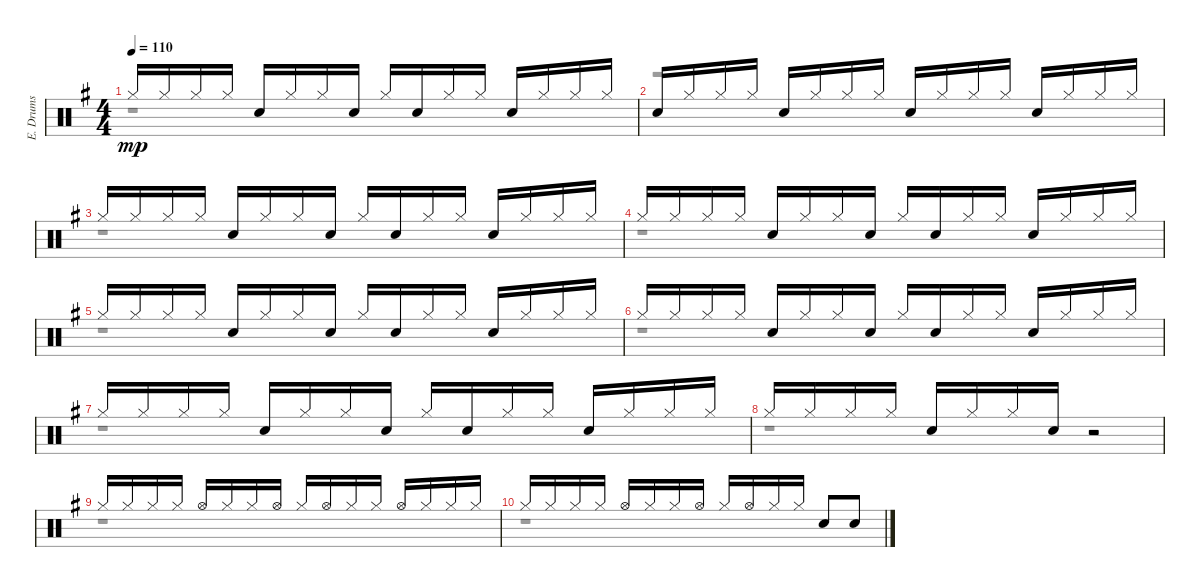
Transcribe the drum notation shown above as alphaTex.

\track ("E. Drums" "E. Drums") {instrument percussion}
\staff {score}
\articulation defaults
\voice
\ts (4 4)
\tempo 110
\clef neutral
\ks g "Hi-Hat (closed)".16{dy mp} "Hi-Hat (closed)".16 "Hi-Hat (closed)".16 "Hi-Hat (closed)".16 "Electric Snare (hit)".16 "Hi-Hat (closed)".16 "Hi-Hat (closed)".16 "Electric Snare (hit)".16 "Hi-Hat (closed)".16 "Electric Snare (hit)".16 "Hi-Hat (closed)".16 "Hi-Hat (closed)".16 "Electric Snare (hit)".16 "Hi-Hat (closed)".16 "Hi-Hat (closed)".16 "Hi-Hat (closed)".16
|
"Electric Snare (hit)".16 "Hi-Hat (closed)".16 "Hi-Hat (closed)".16 "Hi-Hat (closed)".16 "Electric Snare (hit)".16 "Hi-Hat (closed)".16 "Hi-Hat (closed)".16 "Hi-Hat (closed)".16 "Electric Snare (hit)".16 "Hi-Hat (closed)".16 "Hi-Hat (closed)".16 "Hi-Hat (closed)".16 "Electric Snare (hit)".16 "Hi-Hat (closed)".16 "Hi-Hat (closed)".16 "Hi-Hat (closed)".16 |
"Hi-Hat (closed)".16 "Hi-Hat (closed)".16 "Hi-Hat (closed)".16 "Hi-Hat (closed)".16 "Electric Snare (hit)".16 "Hi-Hat (closed)".16 "Hi-Hat (closed)".16 "Electric Snare (hit)".16 "Hi-Hat (closed)".16 "Electric Snare (hit)".16 "Hi-Hat (closed)".16 "Hi-Hat (closed)".16 "Electric Snare (hit)".16 "Hi-Hat (closed)".16 "Hi-Hat (closed)".16 "Hi-Hat (closed)".16 |
"Hi-Hat (closed)".16 "Hi-Hat (closed)".16 "Hi-Hat (closed)".16 "Hi-Hat (closed)".16 "Electric Snare (hit)".16 "Hi-Hat (closed)".16 "Hi-Hat (closed)".16 "Electric Snare (hit)".16 "Hi-Hat (closed)".16 "Electric Snare (hit)".16 "Hi-Hat (closed)".16 "Hi-Hat (closed)".16 "Electric Snare (hit)".16 "Hi-Hat (closed)".16 "Hi-Hat (closed)".16 "Hi-Hat (closed)".16 |
"Hi-Hat (closed)".16 "Hi-Hat (closed)".16 "Hi-Hat (closed)".16 "Hi-Hat (closed)".16 "Electric Snare (hit)".16 "Hi-Hat (closed)".16 "Hi-Hat (closed)".16 "Electric Snare (hit)".16 "Hi-Hat (closed)".16 "Electric Snare (hit)".16 "Hi-Hat (closed)".16 "Hi-Hat (closed)".16 "Electric Snare (hit)".16 "Hi-Hat (closed)".16 "Hi-Hat (closed)".16 "Hi-Hat (closed)".16 |
"Hi-Hat (closed)".16 "Hi-Hat (closed)".16 "Hi-Hat (closed)".16 "Hi-Hat (closed)".16 "Electric Snare (hit)".16 "Hi-Hat (closed)".16 "Hi-Hat (closed)".16 "Electric Snare (hit)".16 "Hi-Hat (closed)".16 "Electric Snare (hit)".16 "Hi-Hat (closed)".16 "Hi-Hat (closed)".16 "Electric Snare (hit)".16 "Hi-Hat (closed)".16 "Hi-Hat (closed)".16 "Hi-Hat (closed)".16 |
"Hi-Hat (closed)".16 "Hi-Hat (closed)".16 "Hi-Hat (closed)".16 "Hi-Hat (closed)".16 "Electric Snare (hit)".16 "Hi-Hat (closed)".16 "Hi-Hat (closed)".16 "Electric Snare (hit)".16 "Hi-Hat (closed)".16 "Electric Snare (hit)".16 "Hi-Hat (closed)".16 "Hi-Hat (closed)".16 "Electric Snare (hit)".16 "Hi-Hat (closed)".16 "Hi-Hat (closed)".16 "Hi-Hat (closed)".16 |
"Hi-Hat (closed)".16 "Hi-Hat (closed)".16 "Hi-Hat (closed)".16 "Hi-Hat (closed)".16 "Electric Snare (hit)".16 "Hi-Hat (closed)".16 "Hi-Hat (closed)".16 "Electric Snare (hit)".16 r.2 |
"Hi-Hat (closed)".16 "Hi-Hat (closed)".16 "Hi-Hat (closed)".16 "Hi-Hat (closed)".16 "Hi-Hat (open)".16 "Hi-Hat (closed)".16 "Hi-Hat (closed)".16 "Hi-Hat (open)".16 "Hi-Hat (closed)".16 "Hi-Hat (open)".16 "Hi-Hat (closed)".16 "Hi-Hat (closed)".16 "Hi-Hat (open)".16 "Hi-Hat (closed)".16 "Hi-Hat (closed)".16 "Hi-Hat (closed)".16 |
"Hi-Hat (closed)".16 "Hi-Hat (closed)".16 "Hi-Hat (closed)".16 "Hi-Hat (closed)".16 "Hi-Hat (open)".16 "Hi-Hat (closed)".16 "Hi-Hat (closed)".16 "Hi-Hat (open)".16 "Hi-Hat (closed)".16 "Hi-Hat (open)".16 "Hi-Hat (closed)".16 "Hi-Hat (closed)".16 "Electric Snare (hit)".8 "Electric Snare (hit)".8
\voice
\clef neutral
\ottava regular
\simile none
\ks g
r.1{dy mp} |
r.1 |
r.1 |
r.1 |
r.1 |
r.1 |
r.1 |
r.1 |
r.1 |
r.1
